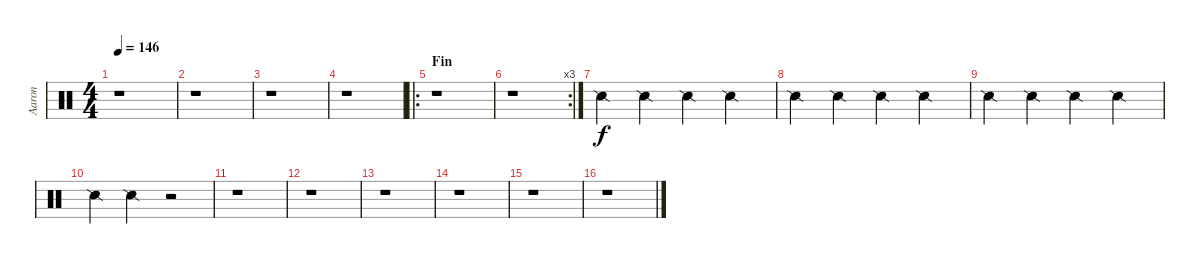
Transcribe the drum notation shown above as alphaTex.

\track ("Aaron" "Aaron") {instrument percussion}
\staff {score}
\articulation defaults
\ts (4 4)
\tempo 146
\clef neutral
\ks c
r.1{dy f} |
r.1 |
r.1 |
r.1 |
\ro
\section ("" "Fin")
r.1 |
\rc 3
r.1 |
"Snare (side stick) 2".4 "Snare (side stick) 2".4 "Snare (side stick) 2".4 "Snare (side stick) 2".4 |
"Snare (side stick) 2".4 "Snare (side stick) 2".4 "Snare (side stick) 2".4 "Snare (side stick) 2".4 |
"Snare (side stick) 2".4 "Snare (side stick) 2".4 "Snare (side stick) 2".4 "Snare (side stick) 2".4 |
"Snare (side stick) 2".4 "Snare (side stick) 2".4 r.2 |
r.1 |
r.1 |
r.1 |
r.1 |
r.1 |
r.1
